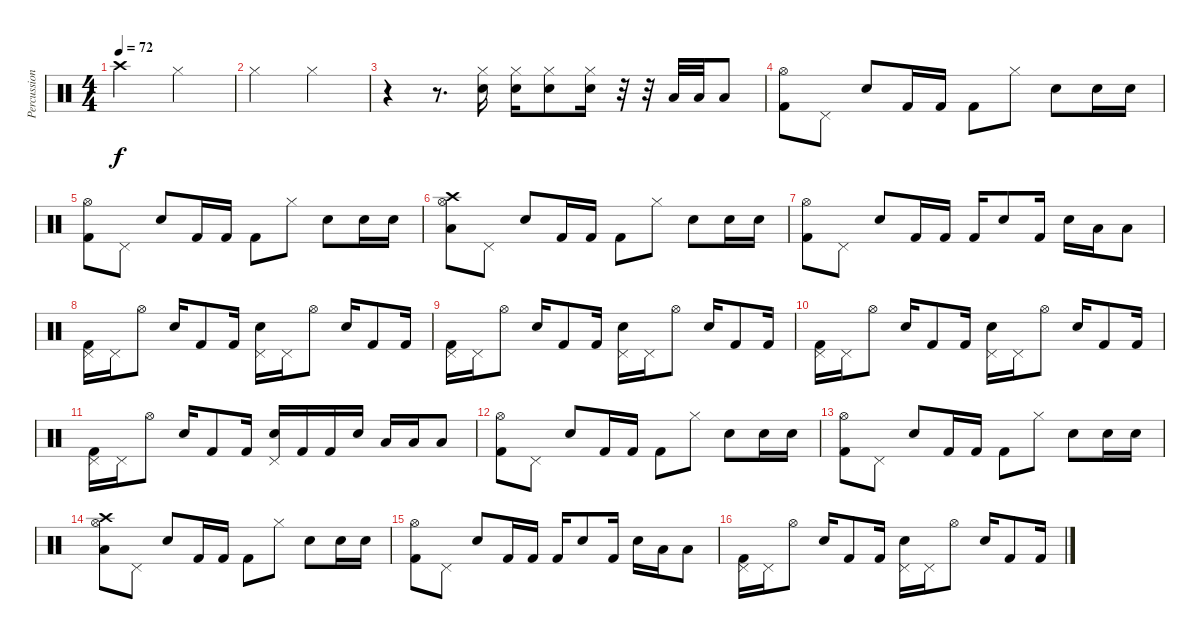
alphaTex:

\track ("Percussion" "Percussion") {instrument percussion}
\staff {score}
\articulation defaults
\ts (4 4)
\tempo 72
\clef neutral
\ks c "Crash high (hit)".2{dy f} "Hi-Hat (closed)".2
|
"Hi-Hat (closed)".2 "Hi-Hat (closed)".2 |
r.4 r.8{d} ("Hi-Hat (closed)" "Snare (hit) 2").16 ("Hi-Hat (closed)" "Snare (hit) 2").16 ("Hi-Hat (closed)" "Snare (hit) 2").8 ("Hi-Hat (closed)" "Snare (hit) 2").16 r.32 r.32 "Low Tom (hit)".32 "Low Floor Tom (hit)".32 "Low Floor Tom (hit)".8 |
("Hi-Hat (open)" "Kick (hit) 2").8 "Pedal Hi-Hat (hit)".8 "Snare (hit) 2".8 "Kick (hit) 2".16 "Kick (hit) 2".16 "Kick (hit) 2".8 "Hi-Hat (closed)".8 "Snare (hit) 2".8 "Snare (hit) 2".16 "Snare (hit) 2".16 |
("Hi-Hat (open)" "Kick (hit) 2").8 "Pedal Hi-Hat (hit)".8 "Snare (hit) 2".8 "Kick (hit) 2".16 "Kick (hit) 2".16 "Kick (hit) 2".8 "Hi-Hat (closed)".8 "Snare (hit) 2".8 "Snare (hit) 2".16 "Snare (hit) 2".16 |
("Hi-Hat (open)" "Low Floor Tom (hit)" "Crash high (hit)").8 "Pedal Hi-Hat (hit)".8 "Snare (hit) 2".8 "Kick (hit) 2".16 "Kick (hit) 2".16 "Kick (hit) 2".8 "Hi-Hat (closed)".8 "Snare (hit) 2".8 "Snare (hit) 2".16 "Snare (hit) 2".16 |
("Hi-Hat (open)" "Kick (hit) 2").8 "Pedal Hi-Hat (hit)".8 "Snare (hit) 2".8 "Kick (hit) 2".16 "Kick (hit) 2".16 "Kick (hit) 2".16 "Snare (hit) 2".8 "Kick (hit) 2".16 "Snare (hit) 2".16 "Low Floor Tom (hit)".16 "Low Floor Tom (hit)".8 |
("Kick (hit) 2" "Pedal Hi-Hat (hit)").16 "Pedal Hi-Hat (hit)".16 "Hi-Hat (open)".8 "Snare (hit) 2".16 "Kick (hit) 2".8 "Kick (hit) 2".16 ("Pedal Hi-Hat (hit)" "Snare (hit) 2").16 "Pedal Hi-Hat (hit)".16 "Hi-Hat (open)".8 "Snare (hit) 2".16 "Kick (hit) 2".8 "Kick (hit) 2".16 |
("Kick (hit) 2" "Pedal Hi-Hat (hit)").16 "Pedal Hi-Hat (hit)".16 "Hi-Hat (open)".8 "Snare (hit) 2".16 "Kick (hit) 2".8 "Kick (hit) 2".16 ("Pedal Hi-Hat (hit)" "Snare (hit) 2").16 "Pedal Hi-Hat (hit)".16 "Hi-Hat (open)".8 "Snare (hit) 2".16 "Kick (hit) 2".8 "Kick (hit) 2".16 |
("Kick (hit) 2" "Pedal Hi-Hat (hit)").16 "Pedal Hi-Hat (hit)".16 "Hi-Hat (open)".8 "Snare (hit) 2".16 "Kick (hit) 2".8 "Kick (hit) 2".16 ("Pedal Hi-Hat (hit)" "Snare (hit) 2").16 "Pedal Hi-Hat (hit)".16 "Hi-Hat (open)".8 "Snare (hit) 2".16 "Kick (hit) 2".8 "Kick (hit) 2".16 |
("Kick (hit) 2" "Pedal Hi-Hat (hit)").16 "Pedal Hi-Hat (hit)".16 "Hi-Hat (open)".8 "Snare (hit) 2".16 "Kick (hit) 2".8 "Kick (hit) 2".16 ("Pedal Hi-Hat (hit)" "Snare (hit) 2").16 "Kick (hit) 2".16 "Kick (hit) 2".16 "Snare (hit) 2".16 "Low Tom (hit)".16 "Low Floor Tom (hit)".16 "Low Floor Tom (hit)".8 |
("Hi-Hat (open)" "Kick (hit) 2").8 "Pedal Hi-Hat (hit)".8 "Snare (hit) 2".8 "Kick (hit) 2".16 "Kick (hit) 2".16 "Kick (hit) 2".8 "Hi-Hat (closed)".8 "Snare (hit) 2".8 "Snare (hit) 2".16 "Snare (hit) 2".16 |
("Hi-Hat (open)" "Kick (hit) 2").8 "Pedal Hi-Hat (hit)".8 "Snare (hit) 2".8 "Kick (hit) 2".16 "Kick (hit) 2".16 "Kick (hit) 2".8 "Hi-Hat (closed)".8 "Snare (hit) 2".8 "Snare (hit) 2".16 "Snare (hit) 2".16 |
("Hi-Hat (open)" "Low Floor Tom (hit)" "Crash high (hit)").8 "Pedal Hi-Hat (hit)".8 "Snare (hit) 2".8 "Kick (hit) 2".16 "Kick (hit) 2".16 "Kick (hit) 2".8 "Hi-Hat (closed)".8 "Snare (hit) 2".8 "Snare (hit) 2".16 "Snare (hit) 2".16 |
("Hi-Hat (open)" "Kick (hit) 2").8 "Pedal Hi-Hat (hit)".8 "Snare (hit) 2".8 "Kick (hit) 2".16 "Kick (hit) 2".16 "Kick (hit) 2".16 "Snare (hit) 2".8 "Kick (hit) 2".16 "Snare (hit) 2".16 "Low Floor Tom (hit)".16 "Low Floor Tom (hit)".8 |
("Kick (hit) 2" "Pedal Hi-Hat (hit)").16 "Pedal Hi-Hat (hit)".16 "Hi-Hat (open)".8 "Snare (hit) 2".16 "Kick (hit) 2".8 "Kick (hit) 2".16 ("Pedal Hi-Hat (hit)" "Snare (hit) 2").16 "Pedal Hi-Hat (hit)".16 "Hi-Hat (open)".8 "Snare (hit) 2".16 "Kick (hit) 2".8 "Kick (hit) 2".16
